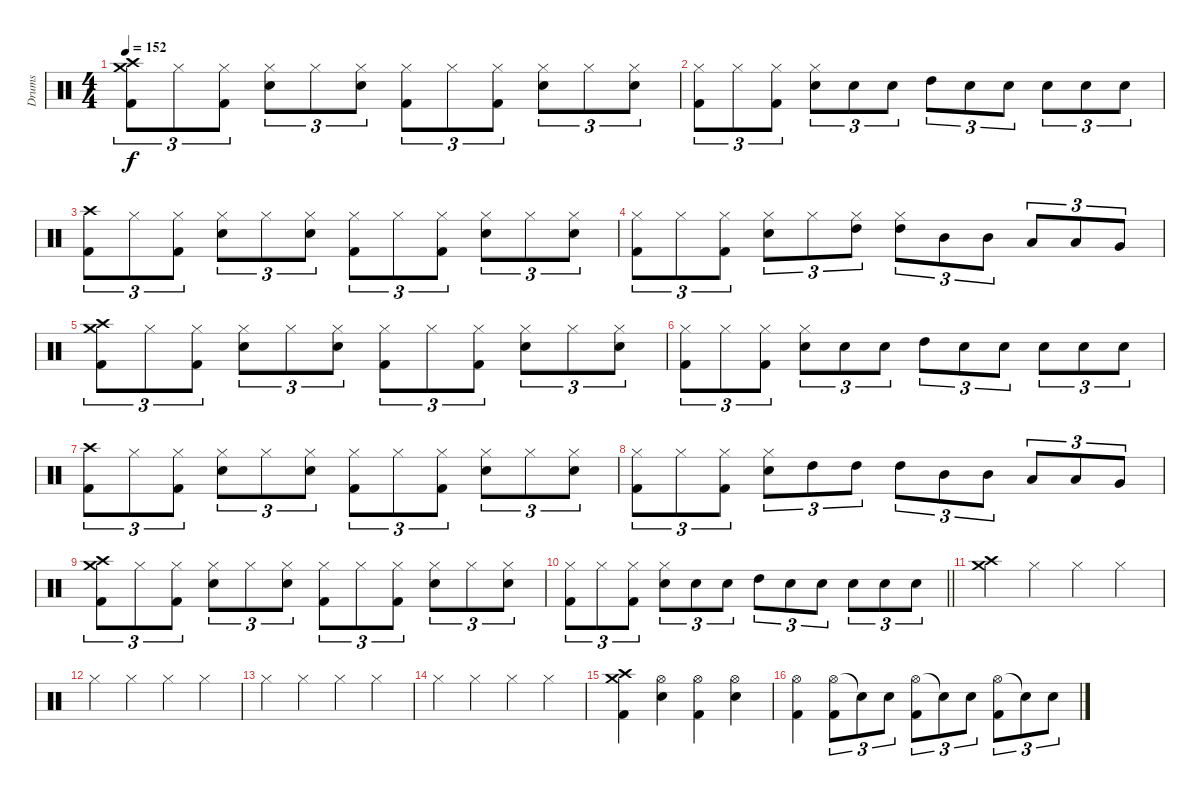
\track ("Drums" "Drums") {instrument percussion}
\staff {score}
\articulation defaults
\ts (4 4)
\tempo 152
\clef neutral
\ks c
("Crash high (hit)" "Crash medium (hit)" "Kick (hit) 2").8{tu (3 2) dy f} "Hi-Hat (closed)".8{tu (3 2)} ("Hi-Hat (closed)" "Kick (hit) 2").8{tu (3 2)} ("Hi-Hat (closed)" "Snare (hit) 2").8{tu (3 2)} "Hi-Hat (closed)".8{tu (3 2)} ("Hi-Hat (closed)" "Snare (hit) 2").8{tu (3 2)} ("Hi-Hat (closed)" "Kick (hit) 2").8{tu (3 2)} "Hi-Hat (closed)".8{tu (3 2)} ("Hi-Hat (closed)" "Kick (hit) 2").8{tu (3 2)} ("Hi-Hat (closed)" "Snare (hit) 2").8{tu (3 2)} "Hi-Hat (closed)".8{tu (3 2)} ("Hi-Hat (closed)" "Snare (hit) 2").8{tu (3 2)} |
("Hi-Hat (closed)" "Kick (hit) 2").8{tu (3 2)} "Hi-Hat (closed)".8{tu (3 2)} ("Hi-Hat (closed)" "Kick (hit) 2").8{tu (3 2)} ("Hi-Hat (closed)" "Snare (hit) 2").8{tu (3 2)} "Snare (hit) 2".8{tu (3 2)} "Snare (hit) 2".8{tu (3 2)} "High Tom (hit)".8{tu (3 2)} "Snare (hit) 2".8{tu (3 2)} "Snare (hit) 2".8{tu (3 2)} "Snare (hit) 2".8{tu (3 2)} "Snare (hit) 2".8{tu (3 2)} "Snare (hit) 2".8{tu (3 2)} |
("Crash high (hit)" "Kick (hit) 2").8{tu (3 2)} "Hi-Hat (closed)".8{tu (3 2)} ("Hi-Hat (closed)" "Kick (hit) 2").8{tu (3 2)} ("Hi-Hat (closed)" "Snare (hit) 2").8{tu (3 2)} "Hi-Hat (closed)".8{tu (3 2)} ("Hi-Hat (closed)" "Snare (hit) 2").8{tu (3 2)} ("Hi-Hat (closed)" "Kick (hit) 2").8{tu (3 2)} "Hi-Hat (closed)".8{tu (3 2)} ("Hi-Hat (closed)" "Kick (hit) 2").8{tu (3 2)} ("Hi-Hat (closed)" "Snare (hit) 2").8{tu (3 2)} "Hi-Hat (closed)".8{tu (3 2)} ("Hi-Hat (closed)" "Snare (hit) 2").8{tu (3 2)} |
("Hi-Hat (closed)" "Kick (hit) 2").8{tu (3 2)} "Hi-Hat (closed)".8{tu (3 2)} ("Hi-Hat (closed)" "Kick (hit) 2").8{tu (3 2)} ("Hi-Hat (closed)" "Snare (hit) 2").8{tu (3 2)} "Hi-Hat (closed)".8{tu (3 2)} ("Hi-Hat (closed)" "High Tom (hit)").8{tu (3 2)} ("Hi-Hat (closed)" "High Tom (hit)").8{tu (3 2)} "Mid Tom (hit)".8{tu (3 2)} "Mid Tom (hit)".8{tu (3 2)} "Low Tom (hit)".8{tu (3 2)} "Low Tom (hit)".8{tu (3 2)} "Very Low Tom (hit)".8{tu (3 2)} |
("Crash high (hit)" "Crash medium (hit)" "Kick (hit) 2").8{tu (3 2)} "Hi-Hat (closed)".8{tu (3 2)} ("Hi-Hat (closed)" "Kick (hit) 2").8{tu (3 2)} ("Hi-Hat (closed)" "Snare (hit) 2").8{tu (3 2)} "Hi-Hat (closed)".8{tu (3 2)} ("Hi-Hat (closed)" "Snare (hit) 2").8{tu (3 2)} ("Hi-Hat (closed)" "Kick (hit) 2").8{tu (3 2)} "Hi-Hat (closed)".8{tu (3 2)} ("Hi-Hat (closed)" "Kick (hit) 2").8{tu (3 2)} ("Hi-Hat (closed)" "Snare (hit) 2").8{tu (3 2)} "Hi-Hat (closed)".8{tu (3 2)} ("Hi-Hat (closed)" "Snare (hit) 2").8{tu (3 2)} |
("Hi-Hat (closed)" "Kick (hit) 2").8{tu (3 2)} "Hi-Hat (closed)".8{tu (3 2)} ("Hi-Hat (closed)" "Kick (hit) 2").8{tu (3 2)} ("Hi-Hat (closed)" "Snare (hit) 2").8{tu (3 2)} "Snare (hit) 2".8{tu (3 2)} "Snare (hit) 2".8{tu (3 2)} "High Tom (hit)".8{tu (3 2)} "Snare (hit) 2".8{tu (3 2)} "Snare (hit) 2".8{tu (3 2)} "Snare (hit) 2".8{tu (3 2)} "Snare (hit) 2".8{tu (3 2)} "Snare (hit) 2".8{tu (3 2)} |
("Crash high (hit)" "Kick (hit) 2").8{tu (3 2)} "Hi-Hat (closed)".8{tu (3 2)} ("Hi-Hat (closed)" "Kick (hit) 2").8{tu (3 2)} ("Hi-Hat (closed)" "Snare (hit) 2").8{tu (3 2)} "Hi-Hat (closed)".8{tu (3 2)} ("Hi-Hat (closed)" "Snare (hit) 2").8{tu (3 2)} ("Hi-Hat (closed)" "Kick (hit) 2").8{tu (3 2)} "Hi-Hat (closed)".8{tu (3 2)} ("Hi-Hat (closed)" "Kick (hit) 2").8{tu (3 2)} ("Hi-Hat (closed)" "Snare (hit) 2").8{tu (3 2)} "Hi-Hat (closed)".8{tu (3 2)} ("Hi-Hat (closed)" "Snare (hit) 2").8{tu (3 2)} |
("Hi-Hat (closed)" "Kick (hit) 2").8{tu (3 2)} "Hi-Hat (closed)".8{tu (3 2)} ("Hi-Hat (closed)" "Kick (hit) 2").8{tu (3 2)} ("Hi-Hat (closed)" "Snare (hit) 2").8{tu (3 2)} "High Tom (hit)".8{tu (3 2)} "High Tom (hit)".8{tu (3 2)} "High Tom (hit)".8{tu (3 2)} "Mid Tom (hit)".8{tu (3 2)} "Mid Tom (hit)".8{tu (3 2)} "Low Tom (hit)".8{tu (3 2)} "Low Tom (hit)".8{tu (3 2)} "Very Low Tom (hit)".8{tu (3 2)} |
("Crash high (hit)" "Crash medium (hit)" "Kick (hit) 2").8{tu (3 2)} "Hi-Hat (closed)".8{tu (3 2)} ("Hi-Hat (closed)" "Kick (hit) 2").8{tu (3 2)} ("Hi-Hat (closed)" "Snare (hit) 2").8{tu (3 2)} "Hi-Hat (closed)".8{tu (3 2)} ("Hi-Hat (closed)" "Snare (hit) 2").8{tu (3 2)} ("Hi-Hat (closed)" "Kick (hit) 2").8{tu (3 2)} "Hi-Hat (closed)".8{tu (3 2)} ("Hi-Hat (closed)" "Kick (hit) 2").8{tu (3 2)} ("Hi-Hat (closed)" "Snare (hit) 2").8{tu (3 2)} "Hi-Hat (closed)".8{tu (3 2)} ("Hi-Hat (closed)" "Snare (hit) 2").8{tu (3 2)} |
\barLineRight lightlight
("Hi-Hat (closed)" "Kick (hit) 2").8{tu (3 2)} "Hi-Hat (closed)".8{tu (3 2)} ("Hi-Hat (closed)" "Kick (hit) 2").8{tu (3 2)} ("Hi-Hat (closed)" "Snare (hit) 2").8{tu (3 2)} "Snare (hit) 2".8{tu (3 2)} "Snare (hit) 2".8{tu (3 2)} "High Tom (hit)".8{tu (3 2)} "Snare (hit) 2".8{tu (3 2)} "Snare (hit) 2".8{tu (3 2)} "Snare (hit) 2".8{tu (3 2)} "Snare (hit) 2".8{tu (3 2)} "Snare (hit) 2".8{tu (3 2)} |
("Crash medium (hit)" "Crash high (hit)").4 "Hi-Hat (closed)".4 "Hi-Hat (closed)".4 "Hi-Hat (closed)".4 |
"Hi-Hat (closed)".4 "Hi-Hat (closed)".4 "Hi-Hat (closed)".4 "Hi-Hat (closed)".4 |
"Hi-Hat (closed)".4 "Hi-Hat (closed)".4 "Hi-Hat (closed)".4 "Hi-Hat (closed)".4 |
"Hi-Hat (closed)".4 "Hi-Hat (closed)".4 "Hi-Hat (closed)".4 "Hi-Hat (closed)".4 |
("Crash high (hit)" "Crash medium (hit)" "Kick (hit) 2").4 ("Hi-Hat (open)" "Snare (hit) 2").4 ("Hi-Hat (open)" "Kick (hit) 2").4 ("Hi-Hat (open)" "Snare (hit) 2").4 |
("Hi-Hat (open)" "Kick (hit) 2").4 ("Hi-Hat (open)" "Kick (hit) 2").8{tu (3 2)} "Snare (hit)"{t}.8{tu (3 2)} "Snare (hit) 2".8{tu (3 2)} ("Hi-Hat (open)" "Kick (hit) 2").8{tu (3 2)} "Snare (hit)"{t}.8{tu (3 2)} "Snare (hit) 2".8{tu (3 2)} ("Hi-Hat (open)" "Kick (hit) 2").8{tu (3 2)} "Snare (hit) 2"{t}.8{tu (3 2)} "Snare (hit) 2".8{tu (3 2)}
